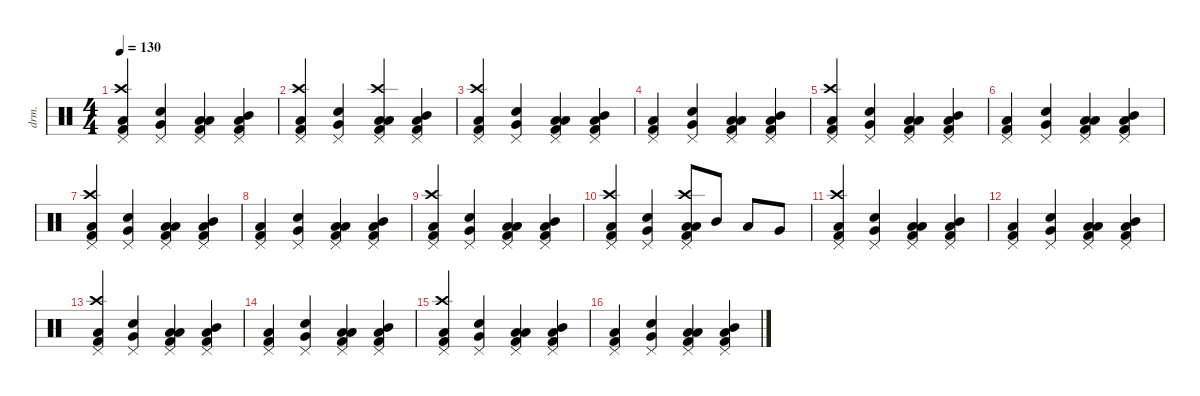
\defaultSystemsLayout 4
\hideDynamics
\bracketExtendMode nobrackets
\otherSystemsTrackNameOrientation horizontal
\track ("Percussion" "drm.") {instrument percussion}
\staff {score}
\articulation defaults
\ts (4 4)
\tempo 130
\clef neutral
\ks c
("Pedal Hi-Hat (hit)" "Crash high (hit)" "Kick (hit) 2" "Low Floor Tom (hit)").4{dy f} ("Pedal Hi-Hat (hit)" "Very Low Tom (hit)" "Snare (hit) 2").4 ("Pedal Hi-Hat (hit)" "Low Floor Tom (hit)" "Kick (hit) 2" "Low Tom (hit)").4 ("Pedal Hi-Hat (hit)" "Low Tom (hit)" "Kick (hit) 2" "Mid Tom (hit)").4 |
("Pedal Hi-Hat (hit)" "Crash high (hit)" "Kick (hit) 2" "Low Floor Tom (hit)").4 ("Pedal Hi-Hat (hit)" "Very Low Tom (hit)" "Snare (hit) 2").4 ("Pedal Hi-Hat (hit)" "Crash high (hit)" "Low Floor Tom (hit)" "Kick (hit) 2" "Low Tom (hit)").4 ("Pedal Hi-Hat (hit)" "Low Tom (hit)" "Kick (hit) 2" "Mid Tom (hit)").4 |
("Pedal Hi-Hat (hit)" "Crash high (hit)" "Kick (hit) 2" "Low Floor Tom (hit)").4 ("Pedal Hi-Hat (hit)" "Very Low Tom (hit)" "Snare (hit) 2").4 ("Pedal Hi-Hat (hit)" "Low Floor Tom (hit)" "Kick (hit) 2" "Low Tom (hit)").4 ("Pedal Hi-Hat (hit)" "Low Tom (hit)" "Kick (hit) 2" "Mid Tom (hit)").4 |
("Pedal Hi-Hat (hit)" "Kick (hit) 2" "Low Floor Tom (hit)").4 ("Pedal Hi-Hat (hit)" "Very Low Tom (hit)" "Snare (hit) 2").4 ("Pedal Hi-Hat (hit)" "Low Floor Tom (hit)" "Kick (hit) 2" "Low Tom (hit)").4 ("Pedal Hi-Hat (hit)" "Low Tom (hit)" "Kick (hit) 2" "Mid Tom (hit)").4 |
("Pedal Hi-Hat (hit)" "Crash high (hit)" "Kick (hit) 2" "Low Floor Tom (hit)").4 ("Pedal Hi-Hat (hit)" "Very Low Tom (hit)" "Snare (hit) 2").4 ("Pedal Hi-Hat (hit)" "Low Floor Tom (hit)" "Kick (hit) 2" "Low Tom (hit)").4 ("Pedal Hi-Hat (hit)" "Low Tom (hit)" "Kick (hit) 2" "Mid Tom (hit)").4 |
("Pedal Hi-Hat (hit)" "Kick (hit) 2" "Low Floor Tom (hit)").4 ("Pedal Hi-Hat (hit)" "Very Low Tom (hit)" "Snare (hit) 2").4 ("Pedal Hi-Hat (hit)" "Low Floor Tom (hit)" "Kick (hit) 2" "Low Tom (hit)").4 ("Pedal Hi-Hat (hit)" "Low Tom (hit)" "Kick (hit) 2" "Mid Tom (hit)").4 |
("Pedal Hi-Hat (hit)" "Crash high (hit)" "Kick (hit) 2" "Low Floor Tom (hit)").4 ("Pedal Hi-Hat (hit)" "Very Low Tom (hit)" "Snare (hit) 2").4 ("Pedal Hi-Hat (hit)" "Low Floor Tom (hit)" "Kick (hit) 2" "Low Tom (hit)").4 ("Pedal Hi-Hat (hit)" "Low Tom (hit)" "Kick (hit) 2" "Mid Tom (hit)").4 |
("Pedal Hi-Hat (hit)" "Kick (hit) 2" "Low Floor Tom (hit)").4 ("Pedal Hi-Hat (hit)" "Very Low Tom (hit)" "Snare (hit) 2").4 ("Pedal Hi-Hat (hit)" "Low Floor Tom (hit)" "Kick (hit) 2" "Low Tom (hit)").4 ("Pedal Hi-Hat (hit)" "Low Tom (hit)" "Kick (hit) 2" "Mid Tom (hit)").4 |
("Pedal Hi-Hat (hit)" "Crash high (hit)" "Kick (hit) 2" "Low Floor Tom (hit)").4 ("Pedal Hi-Hat (hit)" "Very Low Tom (hit)" "Snare (hit) 2").4 ("Pedal Hi-Hat (hit)" "Low Floor Tom (hit)" "Kick (hit) 2" "Low Tom (hit)").4 ("Pedal Hi-Hat (hit)" "Low Tom (hit)" "Kick (hit) 2" "Mid Tom (hit)").4 |
("Pedal Hi-Hat (hit)" "Crash high (hit)" "Kick (hit) 2" "Low Floor Tom (hit)").4 ("Pedal Hi-Hat (hit)" "Very Low Tom (hit)" "Snare (hit) 2").4 ("Pedal Hi-Hat (hit)" "Crash high (hit)" "Low Floor Tom (hit)" "Kick (hit) 2" "Low Tom (hit)").8 "Mid Tom (hit)".8 "Low Tom (hit)".8 "Very Low Tom (hit)".8 |
("Pedal Hi-Hat (hit)" "Crash high (hit)" "Kick (hit) 2" "Low Floor Tom (hit)").4 ("Pedal Hi-Hat (hit)" "Very Low Tom (hit)" "Snare (hit) 2").4 ("Pedal Hi-Hat (hit)" "Low Floor Tom (hit)" "Kick (hit) 2" "Low Tom (hit)").4 ("Pedal Hi-Hat (hit)" "Low Tom (hit)" "Kick (hit) 2" "Mid Tom (hit)").4 |
("Pedal Hi-Hat (hit)" "Kick (hit) 2" "Low Floor Tom (hit)").4 ("Pedal Hi-Hat (hit)" "Very Low Tom (hit)" "Snare (hit) 2").4 ("Pedal Hi-Hat (hit)" "Low Floor Tom (hit)" "Kick (hit) 2" "Low Tom (hit)").4 ("Pedal Hi-Hat (hit)" "Low Tom (hit)" "Kick (hit) 2" "Mid Tom (hit)").4 |
("Pedal Hi-Hat (hit)" "Crash high (hit)" "Kick (hit) 2" "Low Floor Tom (hit)").4 ("Pedal Hi-Hat (hit)" "Very Low Tom (hit)" "Snare (hit) 2").4 ("Pedal Hi-Hat (hit)" "Low Floor Tom (hit)" "Kick (hit) 2" "Low Tom (hit)").4 ("Pedal Hi-Hat (hit)" "Low Tom (hit)" "Kick (hit) 2" "Mid Tom (hit)").4 |
("Pedal Hi-Hat (hit)" "Kick (hit) 2" "Low Floor Tom (hit)").4 ("Pedal Hi-Hat (hit)" "Very Low Tom (hit)" "Snare (hit) 2").4 ("Pedal Hi-Hat (hit)" "Low Floor Tom (hit)" "Kick (hit) 2" "Low Tom (hit)").4 ("Pedal Hi-Hat (hit)" "Low Tom (hit)" "Kick (hit) 2" "Mid Tom (hit)").4 |
("Pedal Hi-Hat (hit)" "Crash high (hit)" "Kick (hit) 2" "Low Floor Tom (hit)").4 ("Pedal Hi-Hat (hit)" "Very Low Tom (hit)" "Snare (hit) 2").4 ("Pedal Hi-Hat (hit)" "Low Floor Tom (hit)" "Kick (hit) 2" "Low Tom (hit)").4 ("Pedal Hi-Hat (hit)" "Low Tom (hit)" "Kick (hit) 2" "Mid Tom (hit)").4 |
("Pedal Hi-Hat (hit)" "Kick (hit) 2" "Low Floor Tom (hit)").4 ("Pedal Hi-Hat (hit)" "Very Low Tom (hit)" "Snare (hit) 2").4 ("Pedal Hi-Hat (hit)" "Low Floor Tom (hit)" "Kick (hit) 2" "Low Tom (hit)").4 ("Pedal Hi-Hat (hit)" "Low Tom (hit)" "Kick (hit) 2" "Mid Tom (hit)").4
